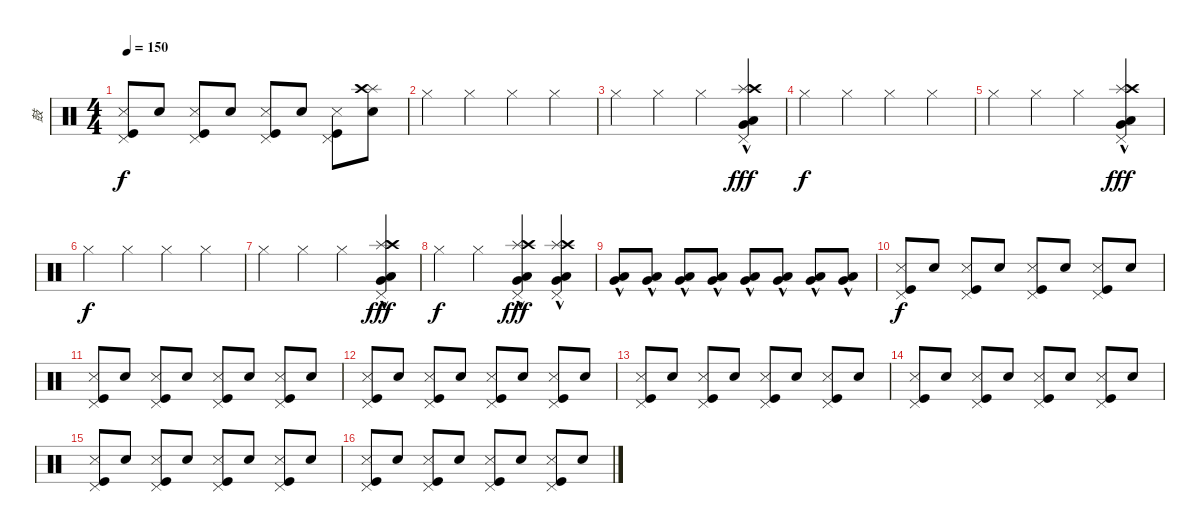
\track ("鼓" "鼓") {instrument percussion}
\staff {score}
\articulation defaults
\ts (4 4)
\tempo 150
\clef neutral
\ks c
("Kick (hit)" "Snare (side stick) 3" "Pedal Hi-Hat (hit)").8{dy f} "Snare (hit) 2".8 ("Kick (hit)" "Snare (side stick) 3" "Pedal Hi-Hat (hit)").8 "Snare (hit) 2".8 ("Kick (hit)" "Snare (side stick) 3" "Pedal Hi-Hat (hit)").8 "Snare (hit) 2".8 ("Kick (hit)" "Snare (side stick) 3" "Pedal Hi-Hat (hit)").8 ("Snare (hit) 2" "Splash (hit)" "Crash high (hit)").8 |
"Hi-Hat (closed)".4 "Hi-Hat (closed)".4 "Hi-Hat (closed)".4 "Hi-Hat (closed)".4 |
"Hi-Hat (closed)".4 "Hi-Hat (closed)".4 "Hi-Hat (closed)".4 ("Pedal Hi-Hat (hit)"{hac} "Low Tom (hit)"{hac} "Very Low Tom (hit)"{hac} "Splash (hit)"{hac} "Crash high (hit)"{hac}).4{dy fff} |
"Hi-Hat (closed)".4{dy f} "Hi-Hat (closed)".4 "Hi-Hat (closed)".4 "Hi-Hat (closed)".4 |
"Hi-Hat (closed)".4 "Hi-Hat (closed)".4 "Hi-Hat (closed)".4 ("Pedal Hi-Hat (hit)"{hac} "Low Tom (hit)"{hac} "Very Low Tom (hit)"{hac} "Splash (hit)"{hac} "Crash high (hit)"{hac}).4{dy fff} |
"Hi-Hat (closed)".4{dy f} "Hi-Hat (closed)".4 "Hi-Hat (closed)".4 "Hi-Hat (closed)".4 |
"Hi-Hat (closed)".4 "Hi-Hat (closed)".4 "Hi-Hat (closed)".4 ("Pedal Hi-Hat (hit)"{hac} "Low Tom (hit)"{hac} "Very Low Tom (hit)"{hac} "Splash (hit)"{hac} "Crash high (hit)"{hac}).4{dy fff} |
"Hi-Hat (closed)".4{dy f} "Hi-Hat (closed)".4 ("Pedal Hi-Hat (hit)"{hac} "Low Tom (hit)"{hac} "Very Low Tom (hit)"{hac} "Splash (hit)"{hac} "Crash high (hit)"{hac}).4{dy fff} ("Pedal Hi-Hat (hit)"{hac} "Low Tom (hit)"{hac} "Very Low Tom (hit)"{hac} "Splash (hit)"{hac} "Crash high (hit)"{hac}).4 |
("Low Tom (hit)"{hac} "Very Low Tom (hit)"{hac}).8 ("Low Tom (hit)"{hac} "Very Low Tom (hit)"{hac}).8 ("Low Tom (hit)"{hac} "Very Low Tom (hit)"{hac}).8 ("Low Tom (hit)"{hac} "Very Low Tom (hit)"{hac}).8 ("Low Tom (hit)"{hac} "Very Low Tom (hit)").8 ("Low Tom (hit)"{hac} "Very Low Tom (hit)").8 ("Low Tom (hit)"{hac} "Very Low Tom (hit)").8 ("Low Tom (hit)"{hac} "Very Low Tom (hit)").8 |
("Kick (hit)" "Snare (side stick) 3" "Pedal Hi-Hat (hit)").8{dy f} "Snare (hit) 2".8 ("Kick (hit)" "Snare (side stick) 3" "Pedal Hi-Hat (hit)").8 "Snare (hit) 2".8 ("Kick (hit)" "Snare (side stick) 3" "Pedal Hi-Hat (hit)").8 "Snare (hit) 2".8 ("Kick (hit)" "Snare (side stick) 3" "Pedal Hi-Hat (hit)").8 "Snare (hit) 2".8 |
("Kick (hit)" "Snare (side stick) 3" "Pedal Hi-Hat (hit)").8 "Snare (hit) 2".8 ("Kick (hit)" "Snare (side stick) 3" "Pedal Hi-Hat (hit)").8 "Snare (hit) 2".8 ("Kick (hit)" "Snare (side stick) 3" "Pedal Hi-Hat (hit)").8 "Snare (hit) 2".8 ("Kick (hit)" "Snare (side stick) 3" "Pedal Hi-Hat (hit)").8 "Snare (hit) 2".8 |
("Kick (hit)" "Snare (side stick) 3" "Pedal Hi-Hat (hit)").8 "Snare (hit) 2".8 ("Kick (hit)" "Snare (side stick) 3" "Pedal Hi-Hat (hit)").8 "Snare (hit) 2".8 ("Kick (hit)" "Snare (side stick) 3" "Pedal Hi-Hat (hit)").8 "Snare (hit) 2".8 ("Kick (hit)" "Snare (side stick) 3" "Pedal Hi-Hat (hit)").8 "Snare (hit) 2".8 |
("Kick (hit)" "Snare (side stick) 3" "Pedal Hi-Hat (hit)").8 "Snare (hit) 2".8 ("Kick (hit)" "Snare (side stick) 3" "Pedal Hi-Hat (hit)").8 "Snare (hit) 2".8 ("Kick (hit)" "Snare (side stick) 3" "Pedal Hi-Hat (hit)").8 "Snare (hit) 2".8 ("Kick (hit)" "Snare (side stick) 3" "Pedal Hi-Hat (hit)").8 "Snare (hit) 2".8 |
("Kick (hit)" "Snare (side stick) 3" "Pedal Hi-Hat (hit)").8 "Snare (hit) 2".8 ("Kick (hit)" "Snare (side stick) 3" "Pedal Hi-Hat (hit)").8 "Snare (hit) 2".8 ("Kick (hit)" "Snare (side stick) 3" "Pedal Hi-Hat (hit)").8 "Snare (hit) 2".8 ("Kick (hit)" "Snare (side stick) 3" "Pedal Hi-Hat (hit)").8 "Snare (hit) 2".8 |
("Kick (hit)" "Snare (side stick) 3" "Pedal Hi-Hat (hit)").8 "Snare (hit) 2".8 ("Kick (hit)" "Snare (side stick) 3" "Pedal Hi-Hat (hit)").8 "Snare (hit) 2".8 ("Kick (hit)" "Snare (side stick) 3" "Pedal Hi-Hat (hit)").8 "Snare (hit) 2".8 ("Kick (hit)" "Snare (side stick) 3" "Pedal Hi-Hat (hit)").8 "Snare (hit) 2".8 |
("Kick (hit)" "Snare (side stick) 3" "Pedal Hi-Hat (hit)").8 "Snare (hit) 2".8 ("Kick (hit)" "Snare (side stick) 3" "Pedal Hi-Hat (hit)").8 "Snare (hit) 2".8 ("Kick (hit)" "Snare (side stick) 3" "Pedal Hi-Hat (hit)").8 "Snare (hit) 2".8 ("Kick (hit)" "Snare (side stick) 3" "Pedal Hi-Hat (hit)").8 "Snare (hit) 2".8
